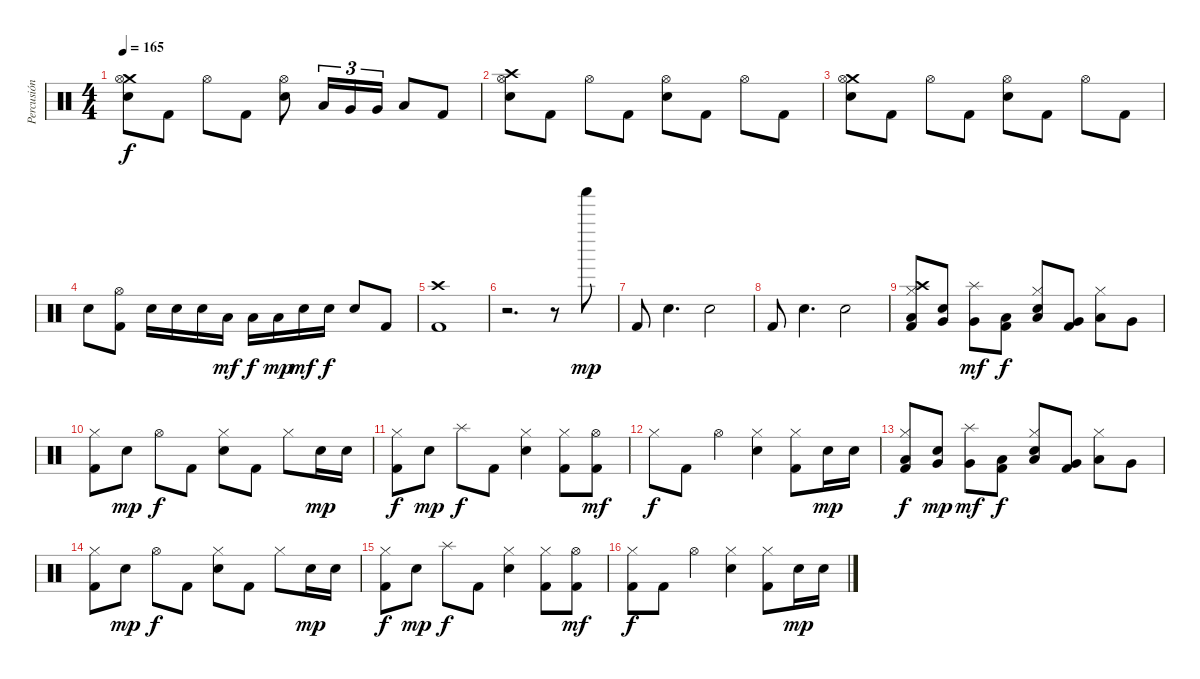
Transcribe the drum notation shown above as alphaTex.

\track ("Percusión" "Percusión") {instrument percussion}
\staff {score}
\articulation defaults
\ts (4 4)
\tempo 165
\clef neutral
\ks c
("Crash medium (hit)" "Hi-Hat (open)" "Snare (hit) 2").8{dy f} "Kick (hit) 2".8 "Hi-Hat (open)".8 "Kick (hit) 2".8 ("Hi-Hat (open)" "Snare (hit) 2").8 "Low Tom (hit)".16{tu (3 2)} "Very Low Tom (hit)".16{tu (3 2)} "Very Low Tom (hit)".16{tu (3 2)} "Low Tom (hit)".8 "Kick (hit) 2".8 |
("Crash high (hit)" "Hi-Hat (open)" "Snare (hit) 2").8 "Kick (hit) 2".8 "Hi-Hat (open)".8 "Kick (hit) 2".8 ("Hi-Hat (open)" "Snare (hit) 2").8 "Kick (hit) 2".8 "Hi-Hat (open)".8 "Kick (hit) 2".8 |
("Crash medium (hit)" "Hi-Hat (open)" "Snare (hit) 2").8 "Kick (hit) 2".8 "Hi-Hat (open)".8 "Kick (hit) 2".8 ("Hi-Hat (open)" "Snare (hit) 2").8 "Kick (hit) 2".8 "Hi-Hat (open)".8 "Kick (hit) 2".8 |
"Snare (hit) 2".8 ("Hi-Hat (open)" "Kick (hit) 2").8 "Snare (hit) 2".16 "Snare (hit) 2".16 "Snare (hit) 2".16 "Low Tom (hit)".16{dy mf} "Low Tom (hit)".16{dy f} "Low Tom (hit)".16{dy mp} "Snare (hit) 2".16{dy mf} "Snare (hit) 2".16{dy f} "Snare (hit) 2".8 "Kick (hit) 2".8 |
("Crash high (hit)" "Kick (hit) 2").1 |
r.2{d} r.8 "Shaker (hit)".8{dy mp} |
"Kick (hit) 2".8 "Electric Snare (hit)".4{d} "Electric Snare (hit)".2 |
"Kick (hit) 2".8 "Electric Snare (hit)".4{d} "Electric Snare (hit)".2 |
("Crash high (hit)" "Hi-Hat (closed)" "Low Floor Tom (hit)" "Kick (hit) 2").8 ("Very Low Tom (hit)" "Electric Snare (hit)").8 ("Splash (hit)" "Very Low Tom (hit)").8{dy mf} ("Low Floor Tom (hit)" "Kick (hit) 2").8{dy f} ("Hi-Hat (closed)" "Low Floor Tom (hit)" "Electric Snare (hit)").8 ("Very Low Tom (hit)" "Kick (hit) 2").8 ("Hi-Hat (closed)" "Low Tom (hit)").8 "Very Low Tom (hit)".8 |
("Hi-Hat (closed)" "Kick (hit) 2").8 "Electric Snare (hit)".8{dy mp} "Hi-Hat (open)".8{dy f} "Kick (hit) 2".8 ("Hi-Hat (closed)" "Electric Snare (hit)").8 "Kick (hit) 2".8 "Hi-Hat (closed)".8 "Electric Snare (hit)".16{dy mp} "Electric Snare (hit)".16 |
("Hi-Hat (closed)" "Kick (hit) 2").8{dy f} "Electric Snare (hit)".8{dy mp} "Splash (hit)".8{dy f} "Kick (hit) 2".8 ("Hi-Hat (closed)" "Electric Snare (hit)").4 ("Hi-Hat (closed)" "Kick (hit) 2").8 ("Hi-Hat (open)" "Kick (hit) 2").8{dy mf} |
"Hi-Hat (closed)".8{dy f} "Kick (hit) 2".8 "Hi-Hat (open)".4 ("Hi-Hat (closed)" "Electric Snare (hit)").4 ("Hi-Hat (closed)" "Kick (hit) 2").8 "Electric Snare (hit)".16{dy mp} "Electric Snare (hit)".16 |
("Hi-Hat (closed)" "Low Floor Tom (hit)" "Kick (hit) 2").8{dy f} ("Very Low Tom (hit)" "Electric Snare (hit)").8{dy mp} ("Splash (hit)" "Very Low Tom (hit)").8{dy mf} ("Low Floor Tom (hit)" "Kick (hit) 2").8{dy f} ("Hi-Hat (closed)" "Low Floor Tom (hit)" "Electric Snare (hit)").8 ("Very Low Tom (hit)" "Kick (hit) 2").8 ("Hi-Hat (closed)" "Low Tom (hit)").8 "Very Low Tom (hit)".8 |
("Hi-Hat (closed)" "Kick (hit) 2").8 "Electric Snare (hit)".8{dy mp} "Hi-Hat (open)".8{dy f} "Kick (hit) 2".8 ("Hi-Hat (closed)" "Electric Snare (hit)").8 "Kick (hit) 2".8 "Hi-Hat (closed)".8 "Electric Snare (hit)".16{dy mp} "Electric Snare (hit)".16 |
("Hi-Hat (closed)" "Kick (hit) 2").8{dy f} "Electric Snare (hit)".8{dy mp} "Splash (hit)".8{dy f} "Kick (hit) 2".8 ("Hi-Hat (closed)" "Electric Snare (hit)").4 ("Hi-Hat (closed)" "Kick (hit) 2").8 ("Hi-Hat (open)" "Kick (hit) 2").8{dy mf} |
("Hi-Hat (closed)" "Kick (hit) 2").8{dy f} "Kick (hit) 2".8 "Hi-Hat (open)".4 ("Hi-Hat (closed)" "Electric Snare (hit)").4 ("Hi-Hat (closed)" "Kick (hit) 2").8 "Electric Snare (hit)".16{dy mp} "Electric Snare (hit)".16
